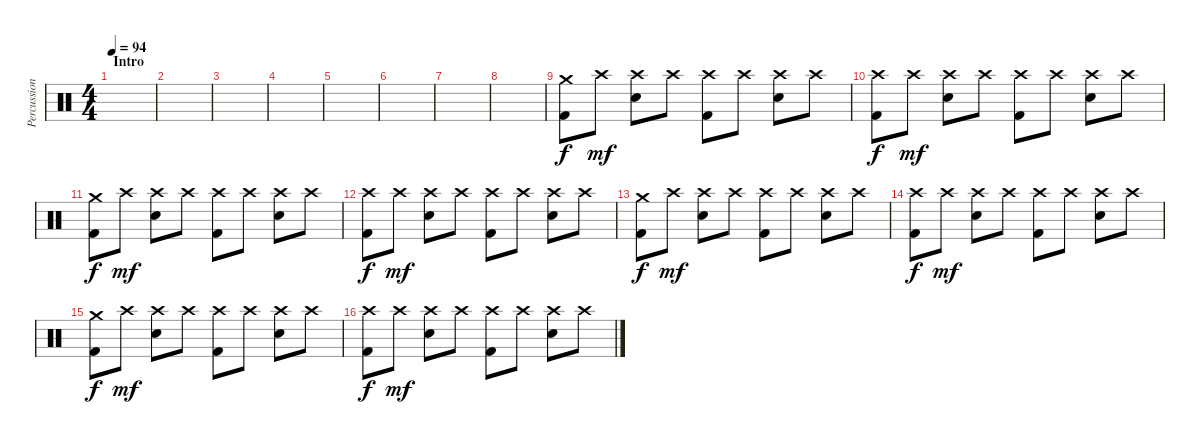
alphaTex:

\track ("Percussion" "Percussion") {instrument percussion}
\staff {score}
\articulation defaults
\ts (4 4)
\section ("" "Intro")
\tempo 94
\clef neutral
\ks c
|
|
|
|
|
|
|
|
("Crash medium (hit)" "Kick (hit) 2").8 "Crash high (hit)".8{dy mf} ("Crash high (hit)" "Electric Snare (hit)").8 "Crash high (hit)".8 ("Crash high (hit)" "Kick (hit) 2").8 "Crash high (hit)".8 ("Crash high (hit)" "Electric Snare (hit)").8 "Crash high (hit)".8 |
("Crash high (hit)" "Kick (hit) 2").8{dy f} "Crash high (hit)".8{dy mf} ("Crash high (hit)" "Electric Snare (hit)").8 "Crash high (hit)".8 ("Crash high (hit)" "Kick (hit) 2").8 "Crash high (hit)".8 ("Crash high (hit)" "Electric Snare (hit)").8 "Crash high (hit)".8 |
("Crash medium (hit)" "Kick (hit) 2").8{dy f} "Crash high (hit)".8{dy mf} ("Crash high (hit)" "Electric Snare (hit)").8 "Crash high (hit)".8 ("Crash high (hit)" "Kick (hit) 2").8 "Crash high (hit)".8 ("Crash high (hit)" "Electric Snare (hit)").8 "Crash high (hit)".8 |
("Crash high (hit)" "Kick (hit) 2").8{dy f} "Crash high (hit)".8{dy mf} ("Crash high (hit)" "Electric Snare (hit)").8 "Crash high (hit)".8 ("Crash high (hit)" "Kick (hit) 2").8 "Crash high (hit)".8 ("Crash high (hit)" "Electric Snare (hit)").8 "Crash high (hit)".8 |
("Crash medium (hit)" "Kick (hit) 2").8{dy f} "Crash high (hit)".8{dy mf} ("Crash high (hit)" "Electric Snare (hit)").8 "Crash high (hit)".8 ("Crash high (hit)" "Kick (hit) 2").8 "Crash high (hit)".8 ("Crash high (hit)" "Electric Snare (hit)").8 "Crash high (hit)".8 |
("Crash high (hit)" "Kick (hit) 2").8{dy f} "Crash high (hit)".8{dy mf} ("Crash high (hit)" "Electric Snare (hit)").8 "Crash high (hit)".8 ("Crash high (hit)" "Kick (hit) 2").8 "Crash high (hit)".8 ("Crash high (hit)" "Electric Snare (hit)").8 "Crash high (hit)".8 |
("Crash medium (hit)" "Kick (hit) 2").8{dy f} "Crash high (hit)".8{dy mf} ("Crash high (hit)" "Electric Snare (hit)").8 "Crash high (hit)".8 ("Crash high (hit)" "Kick (hit) 2").8 "Crash high (hit)".8 ("Crash high (hit)" "Electric Snare (hit)").8 "Crash high (hit)".8 |
("Crash high (hit)" "Kick (hit) 2").8{dy f} "Crash high (hit)".8{dy mf} ("Crash high (hit)" "Electric Snare (hit)").8 "Crash high (hit)".8 ("Crash high (hit)" "Kick (hit) 2").8 "Crash high (hit)".8 ("Crash high (hit)" "Electric Snare (hit)").8 "Crash high (hit)".8
